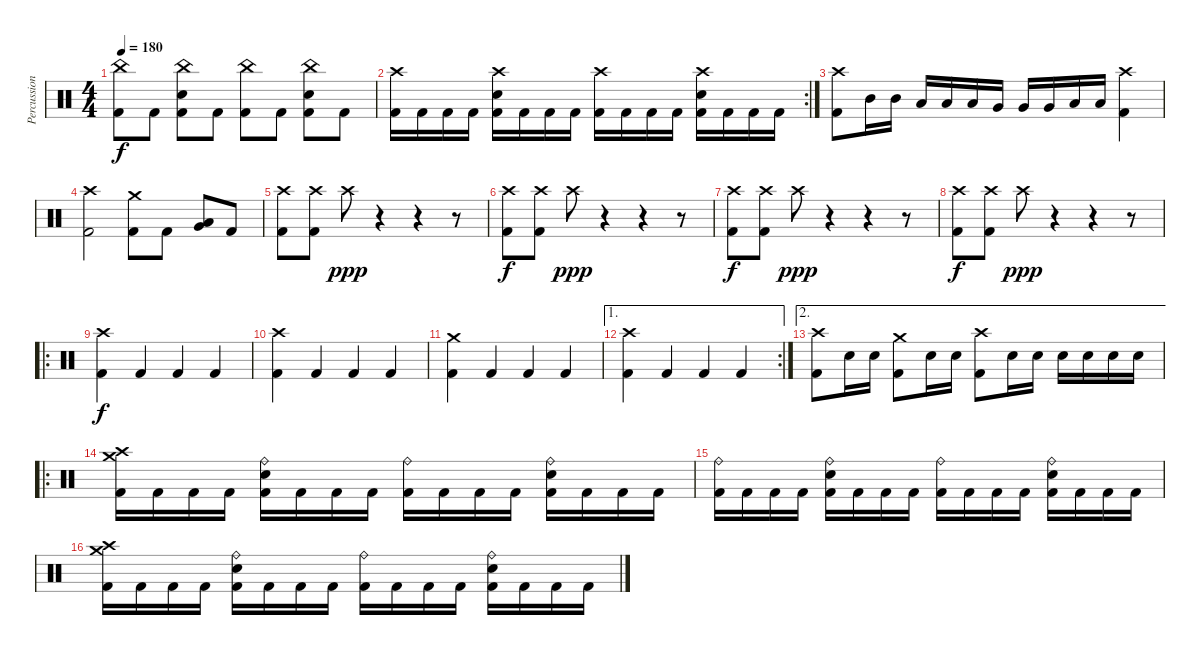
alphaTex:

\track ("Percussions" "Percussion") {instrument percussion}
\staff {score}
\articulation defaults
\ts (4 4)
\tempo 180
\clef neutral
\ks c
("China (hit)" "Kick (hit) 2").8{dy f} "Kick (hit) 2".8 ("China (hit)" "Snare (hit) 2" "Kick (hit) 2").8 "Kick (hit) 2".8 ("China (hit)" "Kick (hit) 2").8 "Kick (hit) 2".8 ("China (hit)" "Snare (hit) 2" "Kick (hit) 2").8 "Kick (hit) 2".8 |
\rc 2
("Crash high (hit)" "Kick (hit) 2").16 "Kick (hit) 2".16 "Kick (hit) 2".16 "Kick (hit) 2".16 ("Crash high (hit)" "Snare (hit) 2" "Kick (hit) 2").16 "Kick (hit) 2".16 "Kick (hit) 2".16 "Kick (hit) 2".16 ("Crash high (hit)" "Kick (hit) 2").16 "Kick (hit) 2".16 "Kick (hit) 2".16 "Kick (hit) 2".16 ("Crash high (hit)" "Snare (hit) 2" "Kick (hit) 2").16 "Kick (hit) 2".16 "Kick (hit) 2".16 "Kick (hit) 2".16 |
("Crash high (hit)" "Kick (hit) 2").8 "Mid Tom (hit)".16 "Mid Tom (hit)".16 "Low Tom (hit)".16 "Low Tom (hit)".16 "Low Tom (hit)".16 "Very Low Tom (hit)".16 "Very Low Tom (hit)".16 "Very Low Tom (hit)".16 "Low Floor Tom (hit)".16 "Low Floor Tom (hit)".16 ("Crash high (hit)" "Kick (hit) 2").4 |
("Crash high (hit)" "Kick (hit) 2").2 ("Crash medium (hit)" "Kick (hit) 2").8 "Kick (hit) 2".8 ("Very Low Tom (hit)" "Low Floor Tom (hit)").8{bd 120} "Kick (hit) 2".8 |
("Crash high (hit)" "Kick (hit) 2").8 ("Crash high (hit)" "Kick (hit) 2").8 "Crash high (hit)".8{dy ppp} r.4 r.4 r.8 |
("Crash high (hit)" "Kick (hit) 2").8{dy f} ("Crash high (hit)" "Kick (hit) 2").8 "Crash high (hit)".8{dy ppp} r.4 r.4 r.8 |
("Crash high (hit)" "Kick (hit) 2").8{dy f} ("Crash high (hit)" "Kick (hit) 2").8 "Crash high (hit)".8{dy ppp} r.4 r.4 r.8 |
("Crash high (hit)" "Kick (hit) 2").8{dy f} ("Crash high (hit)" "Kick (hit) 2").8 "Crash high (hit)".8{dy ppp} r.4 r.4 r.8 |
\ro
("Crash high (hit)" "Kick (hit) 2").4{dy f} "Kick (hit) 2".4 "Kick (hit) 2".4 "Kick (hit) 2".4 |
("Crash high (hit)" "Kick (hit) 2").4 "Kick (hit) 2".4 "Kick (hit) 2".4 "Kick (hit) 2".4 |
("Crash medium (hit)" "Kick (hit) 2").4 "Kick (hit) 2".4 "Kick (hit) 2".4 "Kick (hit) 2".4 |
\ae 1
\rc 2
("Crash high (hit)" "Kick (hit) 2").4 "Kick (hit) 2".4 "Kick (hit) 2".4 "Kick (hit) 2".4 |
\ae 2
("Crash high (hit)" "Kick (hit) 2").8 "Snare (hit) 2".16 "Snare (hit) 2".16 ("Crash medium (hit)" "Kick (hit) 2").8 "Snare (hit) 2".16 "Snare (hit) 2".16 ("Crash high (hit)" "Kick (hit) 2").8 "Snare (hit) 2".16 "Snare (hit) 2".16 "Snare (hit) 2".16 "Snare (hit) 2".16 "Snare (hit) 2".16 "Snare (hit) 2".16 |
\ro
("Crash high (hit)" "Crash medium (hit)" "Kick (hit) 2").16 "Kick (hit) 2".16 "Kick (hit) 2".16 "Kick (hit) 2".16 ("Ride (bell)" "Snare (hit) 2" "Kick (hit) 2").16 "Kick (hit) 2".16 "Kick (hit) 2".16 "Kick (hit) 2".16 ("Ride (bell)" "Kick (hit) 2").16 "Kick (hit) 2".16 "Kick (hit) 2".16 "Kick (hit) 2".16 ("Ride (bell)" "Snare (hit) 2" "Kick (hit) 2").16 "Kick (hit) 2".16 "Kick (hit) 2".16 "Kick (hit) 2".16 |
("Ride (bell)" "Kick (hit) 2").16 "Kick (hit) 2".16 "Kick (hit) 2".16 "Kick (hit) 2".16 ("Ride (bell)" "Snare (hit) 2" "Kick (hit) 2").16 "Kick (hit) 2".16 "Kick (hit) 2".16 "Kick (hit) 2".16 ("Ride (bell)" "Kick (hit) 2").16 "Kick (hit) 2".16 "Kick (hit) 2".16 "Kick (hit) 2".16 ("Ride (bell)" "Snare (hit) 2" "Kick (hit) 2").16 "Kick (hit) 2".16 "Kick (hit) 2".16 "Kick (hit) 2".16 |
("Crash high (hit)" "Crash medium (hit)" "Kick (hit) 2").16 "Kick (hit) 2".16 "Kick (hit) 2".16 "Kick (hit) 2".16 ("Ride (bell)" "Snare (hit) 2" "Kick (hit) 2").16 "Kick (hit) 2".16 "Kick (hit) 2".16 "Kick (hit) 2".16 ("Ride (bell)" "Kick (hit) 2").16 "Kick (hit) 2".16 "Kick (hit) 2".16 "Kick (hit) 2".16 ("Ride (bell)" "Snare (hit) 2" "Kick (hit) 2").16 "Kick (hit) 2".16 "Kick (hit) 2".16 "Kick (hit) 2".16
